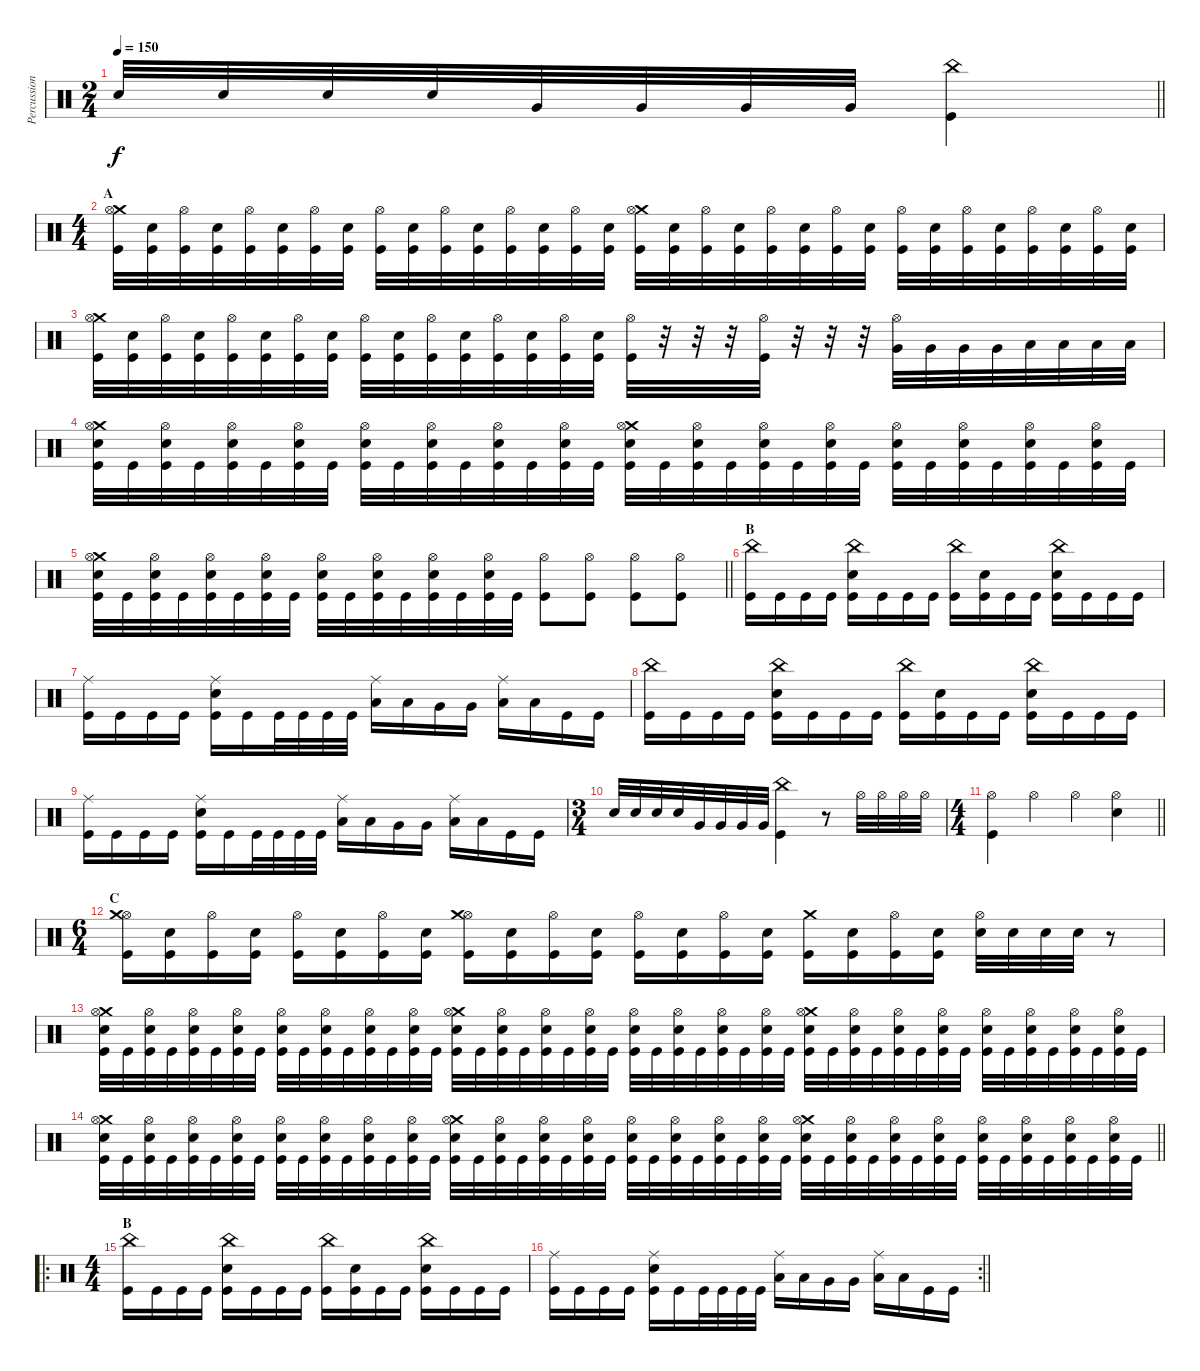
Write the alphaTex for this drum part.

\track ("Percussion" "Percussion") {instrument percussion}
\staff {score}
\articulation defaults
\ts (2 4)
\tempo 150
\clef neutral
\barLineRight lightlight
\ks c "Snare (hit) 2".32{dy f} "Snare (hit) 2".32 "Snare (hit) 2".32 "Snare (hit) 2".32 "Very Low Tom (hit)".32 "Very Low Tom (hit)".32 "Very Low Tom (hit)".32 "Very Low Tom (hit)".32
("Kick (hit)" "China (hit)").4 |
\ts (4 4)
\section ("" "A")
("Kick (hit)" "Crash medium (hit)" "Hi-Hat (open)").32 ("Kick (hit)" "Snare (hit) 2").32 ("Kick (hit)" "Hi-Hat (open)").32 ("Kick (hit)" "Snare (hit) 2").32 ("Kick (hit)" "Hi-Hat (open)").32 ("Kick (hit)" "Snare (hit) 2").32 ("Kick (hit)" "Hi-Hat (open)").32 ("Kick (hit)" "Snare (hit) 2").32 ("Kick (hit)" "Hi-Hat (open)").32 ("Kick (hit)" "Snare (hit) 2").32 ("Kick (hit)" "Hi-Hat (open)").32 ("Kick (hit)" "Snare (hit) 2").32 ("Kick (hit)" "Hi-Hat (open)").32 ("Kick (hit)" "Snare (hit) 2").32 ("Kick (hit)" "Hi-Hat (open)").32 ("Kick (hit)" "Snare (hit) 2").32 ("Kick (hit)" "Crash medium (hit)" "Hi-Hat (open)").32 ("Kick (hit)" "Snare (hit) 2").32 ("Kick (hit)" "Hi-Hat (open)").32 ("Kick (hit)" "Snare (hit) 2").32 ("Kick (hit)" "Hi-Hat (open)").32 ("Kick (hit)" "Snare (hit) 2").32 ("Kick (hit)" "Hi-Hat (open)").32 ("Kick (hit)" "Snare (hit) 2").32 ("Kick (hit)" "Hi-Hat (open)").32 ("Kick (hit)" "Snare (hit) 2").32 ("Kick (hit)" "Hi-Hat (open)").32 ("Kick (hit)" "Snare (hit) 2").32 ("Kick (hit)" "Hi-Hat (open)").32 ("Kick (hit)" "Snare (hit) 2").32 ("Kick (hit)" "Hi-Hat (open)").32 ("Kick (hit)" "Snare (hit) 2").32 |
("Kick (hit)" "Crash medium (hit)" "Hi-Hat (open)").32 ("Kick (hit)" "Snare (hit) 2").32 ("Kick (hit)" "Hi-Hat (open)").32 ("Kick (hit)" "Snare (hit) 2").32 ("Kick (hit)" "Hi-Hat (open)").32 ("Kick (hit)" "Snare (hit) 2").32 ("Kick (hit)" "Hi-Hat (open)").32 ("Kick (hit)" "Snare (hit) 2").32 ("Kick (hit)" "Hi-Hat (open)").32 ("Kick (hit)" "Snare (hit) 2").32 ("Kick (hit)" "Hi-Hat (open)").32 ("Kick (hit)" "Snare (hit) 2").32 ("Kick (hit)" "Hi-Hat (open)").32 ("Kick (hit)" "Snare (hit) 2").32 ("Kick (hit)" "Hi-Hat (open)").32 ("Kick (hit)" "Snare (hit) 2").32 ("Kick (hit)" "Hi-Hat (open)").32 r.32 r.32 r.32 ("Kick (hit)" "Hi-Hat (open)").32 r.32 r.32 r.32 ("Hi-Hat (open)" "Very Low Tom (hit)").32 "Very Low Tom (hit)".32 "Very Low Tom (hit)".32 "Very Low Tom (hit)".32 "Low Floor Tom (hit)".32 "Low Floor Tom (hit)".32 "Low Floor Tom (hit)".32 "Low Floor Tom (hit)".32 |
("Kick (hit)" "Snare (hit) 2" "Crash medium (hit)" "Hi-Hat (open)").32 "Kick (hit)".32 ("Kick (hit)" "Snare (hit) 2" "Hi-Hat (open)").32 "Kick (hit)".32 ("Kick (hit)" "Snare (hit) 2" "Hi-Hat (open)").32 "Kick (hit)".32 ("Kick (hit)" "Snare (hit) 2" "Hi-Hat (open)").32 "Kick (hit)".32 ("Kick (hit)" "Snare (hit) 2" "Hi-Hat (open)").32 "Kick (hit)".32 ("Kick (hit)" "Snare (hit) 2" "Hi-Hat (open)").32 "Kick (hit)".32 ("Kick (hit)" "Snare (hit) 2" "Hi-Hat (open)").32 "Kick (hit)".32 ("Kick (hit)" "Snare (hit) 2" "Hi-Hat (open)").32 "Kick (hit)".32 ("Kick (hit)" "Snare (hit) 2" "Crash medium (hit)" "Hi-Hat (open)").32 "Kick (hit)".32 ("Kick (hit)" "Snare (hit) 2" "Hi-Hat (open)").32 "Kick (hit)".32 ("Kick (hit)" "Snare (hit) 2" "Hi-Hat (open)").32 "Kick (hit)".32 ("Kick (hit)" "Snare (hit) 2" "Hi-Hat (open)").32 "Kick (hit)".32 ("Kick (hit)" "Snare (hit) 2" "Hi-Hat (open)").32 "Kick (hit)".32 ("Kick (hit)" "Snare (hit) 2" "Hi-Hat (open)").32 "Kick (hit)".32 ("Kick (hit)" "Snare (hit) 2" "Hi-Hat (open)").32 "Kick (hit)".32 ("Kick (hit)" "Snare (hit) 2" "Hi-Hat (open)").32 "Kick (hit)".32 |
\barLineRight lightlight
("Kick (hit)" "Snare (hit) 2" "Crash medium (hit)" "Hi-Hat (open)").32 "Kick (hit)".32 ("Kick (hit)" "Snare (hit) 2" "Hi-Hat (open)").32 "Kick (hit)".32 ("Kick (hit)" "Snare (hit) 2" "Hi-Hat (open)").32 "Kick (hit)".32 ("Kick (hit)" "Snare (hit) 2" "Hi-Hat (open)").32 "Kick (hit)".32 ("Kick (hit)" "Snare (hit) 2" "Hi-Hat (open)").32 "Kick (hit)".32 ("Kick (hit)" "Snare (hit) 2" "Hi-Hat (open)").32 "Kick (hit)".32 ("Kick (hit)" "Snare (hit) 2" "Hi-Hat (open)").32 "Kick (hit)".32 ("Kick (hit)" "Snare (hit) 2" "Hi-Hat (open)").32 "Kick (hit)".32 ("Kick (hit)" "Hi-Hat (open)").8 ("Kick (hit)" "Hi-Hat (open)").8 ("Kick (hit)" "Hi-Hat (open)").8 ("Kick (hit)" "Hi-Hat (open)").8 |
\section ("" "B")
("Kick (hit)" "China (hit)").16 "Kick (hit)".16 "Kick (hit)".16 "Kick (hit)".16 ("Kick (hit)" "Snare (hit) 2" "China (hit)").16 "Kick (hit)".16 "Kick (hit)".16 "Kick (hit)".16 ("Kick (hit)" "China (hit)").16 ("Kick (hit)" "Snare (hit) 2").16 "Kick (hit)".16 "Kick (hit)".16 ("Kick (hit)" "Snare (hit) 2" "China (hit)").16 "Kick (hit)".16 "Kick (hit)".16 "Kick (hit)".16 |
("Kick (hit)" "Ride (middle)").16 "Kick (hit)".16 "Kick (hit)".16 "Kick (hit)".16 ("Kick (hit)" "Snare (hit) 2" "Ride (middle)").16 "Kick (hit)".16 "Kick (hit)".32 "Kick (hit)".32 "Kick (hit)".32 "Kick (hit)".32 ("Low Tom (hit)" "Ride (middle)").16 "Low Tom (hit)".16 "Very Low Tom (hit)".16 "Very Low Tom (hit)".16 ("Low Floor Tom (hit)" "Ride (middle)").16 "Low Floor Tom (hit)".16 "Kick (hit)".16 "Kick (hit)".16 |
("Kick (hit)" "China (hit)").16 "Kick (hit)".16 "Kick (hit)".16 "Kick (hit)".16 ("Kick (hit)" "Snare (hit) 2" "China (hit)").16 "Kick (hit)".16 "Kick (hit)".16 "Kick (hit)".16 ("Kick (hit)" "China (hit)").16 ("Kick (hit)" "Snare (hit) 2").16 "Kick (hit)".16 "Kick (hit)".16 ("Kick (hit)" "Snare (hit) 2" "China (hit)").16 "Kick (hit)".16 "Kick (hit)".16 "Kick (hit)".16 |
("Kick (hit)" "Ride (middle)").16 "Kick (hit)".16 "Kick (hit)".16 "Kick (hit)".16 ("Kick (hit)" "Snare (hit) 2" "Ride (middle)").16 "Kick (hit)".16 "Kick (hit)".32 "Kick (hit)".32 "Kick (hit)".32 "Kick (hit)".32 ("Low Tom (hit)" "Ride (middle)").16 "Low Tom (hit)".16 "Very Low Tom (hit)".16 "Very Low Tom (hit)".16 ("Low Floor Tom (hit)" "Ride (middle)").16 "Low Floor Tom (hit)".16 "Kick (hit)".16 "Kick (hit)".16 |
\ts (3 4)
"Snare (hit) 2".32 "Snare (hit) 2".32 "Snare (hit) 2".32 "Snare (hit) 2".32 "Very Low Tom (hit)".32 "Very Low Tom (hit)".32 "Very Low Tom (hit)".32 "Very Low Tom (hit)".32 ("Kick (hit)" "China (hit)").4 r.8 "Hi-Hat (open)".32 "Hi-Hat (open)".32 "Hi-Hat (open)".32 "Hi-Hat (open)".32 |
\ts (4 4)
\barLineRight lightlight
("Kick (hit)" "Hi-Hat (open)").4 "Hi-Hat (open)".4 "Hi-Hat (open)".4 ("Snare (hit) 2" "Hi-Hat (open)").4 |
\ts (6 4)
\section ("" "C")
("Kick (hit)" "Hi-Hat (open)" "Crash medium (hit)").16 ("Kick (hit)" "Snare (hit) 2").16 ("Kick (hit)" "Hi-Hat (open)").16 ("Kick (hit)" "Snare (hit) 2").16 ("Kick (hit)" "Hi-Hat (open)").16 ("Kick (hit)" "Snare (hit) 2").16 ("Kick (hit)" "Hi-Hat (open)").16 ("Kick (hit)" "Snare (hit) 2").16 ("Kick (hit)" "Hi-Hat (open)" "Crash medium (hit)").16 ("Kick (hit)" "Snare (hit) 2").16 ("Kick (hit)" "Hi-Hat (open)").16 ("Kick (hit)" "Snare (hit) 2").16 ("Kick (hit)" "Hi-Hat (open)").16 ("Kick (hit)" "Snare (hit) 2").16 ("Kick (hit)" "Hi-Hat (open)").16 ("Kick (hit)" "Snare (hit) 2").16 ("Kick (hit)" "Crash medium (hit)").16 ("Kick (hit)" "Snare (hit) 2").16 ("Kick (hit)" "Hi-Hat (open)").16 ("Kick (hit)" "Snare (hit) 2").16 ("Snare (hit) 2" "Hi-Hat (open)").32 "Snare (hit) 2".32 "Snare (hit) 2".32 "Snare (hit) 2".32 r.8 |
("Kick (hit)" "Snare (hit) 2" "Crash medium (hit)" "Hi-Hat (open)").32 "Kick (hit)".32 ("Kick (hit)" "Snare (hit) 2" "Hi-Hat (open)").32 "Kick (hit)".32 ("Kick (hit)" "Snare (hit) 2" "Hi-Hat (open)").32 "Kick (hit)".32 ("Kick (hit)" "Snare (hit) 2" "Hi-Hat (open)").32 "Kick (hit)".32 ("Kick (hit)" "Snare (hit) 2" "Hi-Hat (open)").32 "Kick (hit)".32 ("Kick (hit)" "Snare (hit) 2" "Hi-Hat (open)").32 "Kick (hit)".32 ("Kick (hit)" "Snare (hit) 2" "Hi-Hat (open)").32 "Kick (hit)".32 ("Kick (hit)" "Snare (hit) 2" "Hi-Hat (open)").32 "Kick (hit)".32 ("Kick (hit)" "Snare (hit) 2" "Crash medium (hit)" "Hi-Hat (open)").32 "Kick (hit)".32 ("Kick (hit)" "Snare (hit) 2" "Hi-Hat (open)").32 "Kick (hit)".32 ("Kick (hit)" "Snare (hit) 2" "Hi-Hat (open)").32 "Kick (hit)".32 ("Kick (hit)" "Snare (hit) 2" "Hi-Hat (open)").32 "Kick (hit)".32 ("Kick (hit)" "Snare (hit) 2" "Hi-Hat (open)").32 "Kick (hit)".32 ("Kick (hit)" "Snare (hit) 2" "Hi-Hat (open)").32 "Kick (hit)".32 ("Kick (hit)" "Snare (hit) 2" "Hi-Hat (open)").32 "Kick (hit)".32 ("Kick (hit)" "Snare (hit) 2" "Hi-Hat (open)").32 "Kick (hit)".32 ("Kick (hit)" "Snare (hit) 2" "Crash medium (hit)" "Hi-Hat (open)").32 "Kick (hit)".32 ("Kick (hit)" "Snare (hit) 2" "Hi-Hat (open)").32 "Kick (hit)".32 ("Kick (hit)" "Snare (hit) 2" "Hi-Hat (open)").32 "Kick (hit)".32 ("Kick (hit)" "Snare (hit) 2" "Hi-Hat (open)").32 "Kick (hit)".32 ("Kick (hit)" "Snare (hit) 2" "Hi-Hat (open)").32 "Kick (hit)".32 ("Kick (hit)" "Snare (hit) 2" "Hi-Hat (open)").32 "Kick (hit)".32 ("Kick (hit)" "Snare (hit) 2" "Hi-Hat (open)").32 "Kick (hit)".32 ("Kick (hit)" "Snare (hit) 2" "Hi-Hat (open)").32 "Kick (hit)".32 |
\barLineRight lightlight
("Kick (hit)" "Snare (hit) 2" "Crash medium (hit)" "Hi-Hat (open)").32 "Kick (hit)".32 ("Kick (hit)" "Snare (hit) 2" "Hi-Hat (open)").32 "Kick (hit)".32 ("Kick (hit)" "Snare (hit) 2" "Hi-Hat (open)").32 "Kick (hit)".32 ("Kick (hit)" "Snare (hit) 2" "Hi-Hat (open)").32 "Kick (hit)".32 ("Kick (hit)" "Snare (hit) 2" "Hi-Hat (open)").32 "Kick (hit)".32 ("Kick (hit)" "Snare (hit) 2" "Hi-Hat (open)").32 "Kick (hit)".32 ("Kick (hit)" "Snare (hit) 2" "Hi-Hat (open)").32 "Kick (hit)".32 ("Kick (hit)" "Snare (hit) 2" "Hi-Hat (open)").32 "Kick (hit)".32 ("Kick (hit)" "Snare (hit) 2" "Crash medium (hit)" "Hi-Hat (open)").32 "Kick (hit)".32 ("Kick (hit)" "Snare (hit) 2" "Hi-Hat (open)").32 "Kick (hit)".32 ("Kick (hit)" "Snare (hit) 2" "Hi-Hat (open)").32 "Kick (hit)".32 ("Kick (hit)" "Snare (hit) 2" "Hi-Hat (open)").32 "Kick (hit)".32 ("Kick (hit)" "Snare (hit) 2" "Hi-Hat (open)").32 "Kick (hit)".32 ("Kick (hit)" "Snare (hit) 2" "Hi-Hat (open)").32 "Kick (hit)".32 ("Kick (hit)" "Snare (hit) 2" "Hi-Hat (open)").32 "Kick (hit)".32 ("Kick (hit)" "Snare (hit) 2" "Hi-Hat (open)").32 "Kick (hit)".32 ("Kick (hit)" "Snare (hit) 2" "Crash medium (hit)" "Hi-Hat (open)").32 "Kick (hit)".32 ("Kick (hit)" "Snare (hit) 2" "Hi-Hat (open)").32 "Kick (hit)".32 ("Kick (hit)" "Snare (hit) 2" "Hi-Hat (open)").32 "Kick (hit)".32 ("Kick (hit)" "Snare (hit) 2" "Hi-Hat (open)").32 "Kick (hit)".32 ("Kick (hit)" "Snare (hit) 2" "Hi-Hat (open)").32 "Kick (hit)".32 ("Kick (hit)" "Snare (hit) 2" "Hi-Hat (open)").32 "Kick (hit)".32 ("Kick (hit)" "Snare (hit) 2" "Hi-Hat (open)").32 "Kick (hit)".32 ("Kick (hit)" "Snare (hit) 2" "Hi-Hat (open)").32 "Kick (hit)".32 |
\ro
\ts (4 4)
\section ("" "B")
("Kick (hit)" "China (hit)").16 "Kick (hit)".16 "Kick (hit)".16 "Kick (hit)".16 ("Kick (hit)" "Snare (hit) 2" "China (hit)").16 "Kick (hit)".16 "Kick (hit)".16 "Kick (hit)".16 ("Kick (hit)" "China (hit)").16 ("Kick (hit)" "Snare (hit) 2").16 "Kick (hit)".16 "Kick (hit)".16 ("Kick (hit)" "Snare (hit) 2" "China (hit)").16 "Kick (hit)".16 "Kick (hit)".16 "Kick (hit)".16 |
\rc 2
\barLineRight lightlight
("Kick (hit)" "Ride (middle)").16 "Kick (hit)".16 "Kick (hit)".16 "Kick (hit)".16 ("Kick (hit)" "Snare (hit) 2" "Ride (middle)").16 "Kick (hit)".16 "Kick (hit)".32 "Kick (hit)".32 "Kick (hit)".32 "Kick (hit)".32 ("Low Tom (hit)" "Ride (middle)").16 "Low Tom (hit)".16 "Very Low Tom (hit)".16 "Very Low Tom (hit)".16 ("Low Floor Tom (hit)" "Ride (middle)").16 "Low Floor Tom (hit)".16 "Kick (hit)".16 "Kick (hit)".16
